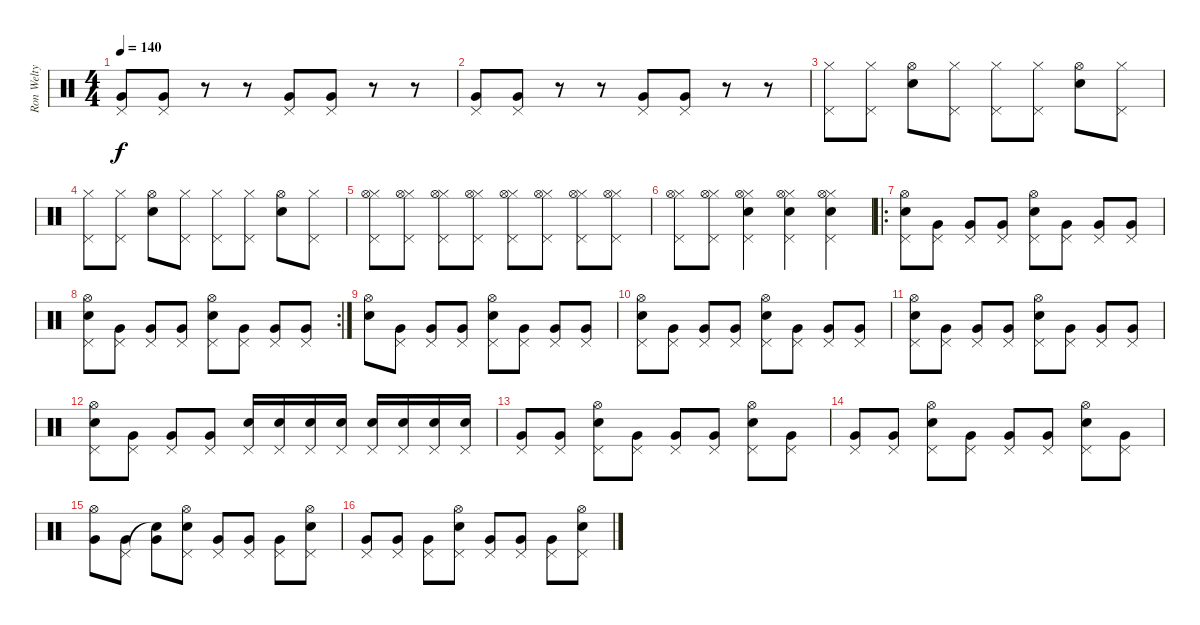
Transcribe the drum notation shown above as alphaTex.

\track ("Ron Welty - Bateria" "Ron Welty ") {instrument percussion}
\staff {score}
\articulation defaults
\ts (4 4)
\tempo 140
\clef neutral
\ks c
("Pedal Hi-Hat (hit)" "Very Low Tom (hit)").8{dy f} ("Pedal Hi-Hat (hit)" "Very Low Tom (hit)").8 r.8 r.8 ("Pedal Hi-Hat (hit)" "Very Low Tom (hit)").8 ("Pedal Hi-Hat (hit)" "Very Low Tom (hit)").8 r.8 r.8 |
("Pedal Hi-Hat (hit)" "Very Low Tom (hit)").8 ("Very Low Tom (hit)" "Pedal Hi-Hat (hit)").8 r.8 r.8 ("Pedal Hi-Hat (hit)" "Very Low Tom (hit)").8 ("Pedal Hi-Hat (hit)" "Very Low Tom (hit)").8 r.8 r.8 |
("Pedal Hi-Hat (hit)" "Hi-Hat (closed)").8 ("Pedal Hi-Hat (hit)" "Hi-Hat (closed)").8 ("Electric Snare (hit)" "Hi-Hat (open)").8 ("Pedal Hi-Hat (hit)" "Hi-Hat (closed)").8 ("Pedal Hi-Hat (hit)" "Hi-Hat (closed)").8 ("Pedal Hi-Hat (hit)" "Hi-Hat (closed)").8 ("Electric Snare (hit)" "Hi-Hat (open)").8 ("Pedal Hi-Hat (hit)" "Hi-Hat (closed)").8 |
("Pedal Hi-Hat (hit)" "Hi-Hat (closed)").8 ("Pedal Hi-Hat (hit)" "Hi-Hat (closed)").8 ("Electric Snare (hit)" "Hi-Hat (open)").8 ("Pedal Hi-Hat (hit)" "Hi-Hat (closed)").8 ("Pedal Hi-Hat (hit)" "Hi-Hat (closed)").8 ("Pedal Hi-Hat (hit)" "Hi-Hat (closed)").8 ("Electric Snare (hit)" "Hi-Hat (open)").8 ("Pedal Hi-Hat (hit)" "Hi-Hat (closed)").8 |
("Hi-Hat (closed)" "Pedal Hi-Hat (hit)" "Hi-Hat (open)").8 ("Hi-Hat (closed)" "Pedal Hi-Hat (hit)" "Hi-Hat (open)").8 ("Hi-Hat (closed)" "Pedal Hi-Hat (hit)" "Hi-Hat (open)").8 ("Hi-Hat (closed)" "Pedal Hi-Hat (hit)" "Hi-Hat (open)").8 ("Hi-Hat (closed)" "Pedal Hi-Hat (hit)" "Hi-Hat (open)").8 ("Hi-Hat (closed)" "Pedal Hi-Hat (hit)" "Hi-Hat (open)").8 ("Hi-Hat (closed)" "Pedal Hi-Hat (hit)" "Hi-Hat (open)").8 ("Hi-Hat (closed)" "Pedal Hi-Hat (hit)" "Hi-Hat (open)").8 |
("Hi-Hat (closed)" "Pedal Hi-Hat (hit)" "Hi-Hat (open)").8 ("Hi-Hat (closed)" "Pedal Hi-Hat (hit)" "Hi-Hat (open)").8 ("Electric Snare (hit)" "Hi-Hat (closed)" "Pedal Hi-Hat (hit)" "Hi-Hat (open)").4 ("Electric Snare (hit)" "Hi-Hat (closed)" "Pedal Hi-Hat (hit)" "Hi-Hat (open)").4 ("Electric Snare (hit)" "Hi-Hat (closed)" "Pedal Hi-Hat (hit)" "Hi-Hat (open)").4 |
\ro
("Pedal Hi-Hat (hit)" "Electric Snare (hit)" "Hi-Hat (open)").8 ("Pedal Hi-Hat (hit)" "Very Low Tom (hit)").8 ("Pedal Hi-Hat (hit)" "Very Low Tom (hit)").8 ("Pedal Hi-Hat (hit)" "Very Low Tom (hit)").8 ("Pedal Hi-Hat (hit)" "Electric Snare (hit)" "Hi-Hat (open)").8 ("Pedal Hi-Hat (hit)" "Very Low Tom (hit)").8 ("Pedal Hi-Hat (hit)" "Very Low Tom (hit)").8 ("Pedal Hi-Hat (hit)" "Very Low Tom (hit)").8 |
\rc 2
("Electric Snare (hit)" "Pedal Hi-Hat (hit)" "Hi-Hat (open)").8 ("Pedal Hi-Hat (hit)" "Very Low Tom (hit)").8 ("Pedal Hi-Hat (hit)" "Very Low Tom (hit)").8 ("Pedal Hi-Hat (hit)" "Very Low Tom (hit)").8 ("Electric Snare (hit)" "Pedal Hi-Hat (hit)" "Hi-Hat (open)").8 ("Very Low Tom (hit)" "Pedal Hi-Hat (hit)").8 ("Very Low Tom (hit)" "Pedal Hi-Hat (hit)").8 ("Very Low Tom (hit)" "Pedal Hi-Hat (hit)").8 |
("Hi-Hat (open)" "Electric Snare (hit)").8 ("Pedal Hi-Hat (hit)" "Very Low Tom (hit)").8 ("Pedal Hi-Hat (hit)" "Very Low Tom (hit)").8 ("Pedal Hi-Hat (hit)" "Very Low Tom (hit)").8 ("Pedal Hi-Hat (hit)" "Electric Snare (hit)" "Hi-Hat (open)").8 ("Pedal Hi-Hat (hit)" "Very Low Tom (hit)").8 ("Pedal Hi-Hat (hit)" "Very Low Tom (hit)").8 ("Pedal Hi-Hat (hit)" "Very Low Tom (hit)").8 |
("Electric Snare (hit)" "Pedal Hi-Hat (hit)" "Hi-Hat (open)").8 ("Pedal Hi-Hat (hit)" "Very Low Tom (hit)").8 ("Pedal Hi-Hat (hit)" "Very Low Tom (hit)").8 ("Pedal Hi-Hat (hit)" "Very Low Tom (hit)").8 ("Electric Snare (hit)" "Pedal Hi-Hat (hit)" "Hi-Hat (open)").8 ("Pedal Hi-Hat (hit)" "Very Low Tom (hit)").8 ("Pedal Hi-Hat (hit)" "Very Low Tom (hit)").8 ("Pedal Hi-Hat (hit)" "Very Low Tom (hit)").8 |
("Electric Snare (hit)" "Pedal Hi-Hat (hit)" "Hi-Hat (open)").8 ("Pedal Hi-Hat (hit)" "Very Low Tom (hit)").8 ("Pedal Hi-Hat (hit)" "Very Low Tom (hit)").8 ("Pedal Hi-Hat (hit)" "Very Low Tom (hit)").8 ("Electric Snare (hit)" "Pedal Hi-Hat (hit)" "Hi-Hat (open)").8 ("Pedal Hi-Hat (hit)" "Very Low Tom (hit)").8 ("Pedal Hi-Hat (hit)" "Very Low Tom (hit)").8 ("Pedal Hi-Hat (hit)" "Very Low Tom (hit)").8 |
("Pedal Hi-Hat (hit)" "Electric Snare (hit)" "Hi-Hat (open)").8 ("Pedal Hi-Hat (hit)" "Very Low Tom (hit)").8 ("Pedal Hi-Hat (hit)" "Very Low Tom (hit)").8 ("Pedal Hi-Hat (hit)" "Very Low Tom (hit)").8 ("Pedal Hi-Hat (hit)" "Electric Snare (hit)").16 ("Pedal Hi-Hat (hit)" "Electric Snare (hit)").16 ("Pedal Hi-Hat (hit)" "Electric Snare (hit)").16 ("Pedal Hi-Hat (hit)" "Electric Snare (hit)").16 ("Pedal Hi-Hat (hit)" "Electric Snare (hit)").16 ("Pedal Hi-Hat (hit)" "Electric Snare (hit)").16 ("Pedal Hi-Hat (hit)" "Electric Snare (hit)").16 ("Pedal Hi-Hat (hit)" "Electric Snare (hit)").16 |
("Pedal Hi-Hat (hit)" "Very Low Tom (hit)").8 ("Pedal Hi-Hat (hit)" "Very Low Tom (hit)").8 ("Electric Snare (hit)" "Pedal Hi-Hat (hit)" "Hi-Hat (open)").8 ("Pedal Hi-Hat (hit)" "Very Low Tom (hit)").8 ("Pedal Hi-Hat (hit)" "Very Low Tom (hit)").8 ("Pedal Hi-Hat (hit)" "Very Low Tom (hit)").8 ("Electric Snare (hit)" "Pedal Hi-Hat (hit)" "Hi-Hat (open)").8 ("Pedal Hi-Hat (hit)" "Very Low Tom (hit)").8 |
("Pedal Hi-Hat (hit)" "Very Low Tom (hit)").8 ("Pedal Hi-Hat (hit)" "Very Low Tom (hit)").8 ("Electric Snare (hit)" "Pedal Hi-Hat (hit)" "Hi-Hat (open)").8 ("Pedal Hi-Hat (hit)" "Very Low Tom (hit)").8 ("Pedal Hi-Hat (hit)" "Very Low Tom (hit)").8 ("Pedal Hi-Hat (hit)" "Very Low Tom (hit)").8 ("Pedal Hi-Hat (hit)" "Electric Snare (hit)" "Hi-Hat (open)").8 ("Pedal Hi-Hat (hit)" "Very Low Tom (hit)").8 |
("Hi-Hat (open)" "Very Low Tom (hit)").8 ("Pedal Hi-Hat (hit)" "Very Low Tom (hit)").8 ("Snare (hit)"{t} "Very Low Tom (hit)").8 ("Electric Snare (hit)" "Pedal Hi-Hat (hit)" "Hi-Hat (open)").8 ("Very Low Tom (hit)" "Pedal Hi-Hat (hit)").8 ("Pedal Hi-Hat (hit)" "Very Low Tom (hit)").8 ("Pedal Hi-Hat (hit)" "Very Low Tom (hit)").8 ("Electric Snare (hit)" "Pedal Hi-Hat (hit)" "Hi-Hat (open)").8 |
("Very Low Tom (hit)" "Pedal Hi-Hat (hit)").8 ("Pedal Hi-Hat (hit)" "Very Low Tom (hit)").8 ("Pedal Hi-Hat (hit)" "Very Low Tom (hit)").8 ("Pedal Hi-Hat (hit)" "Electric Snare (hit)" "Hi-Hat (open)").8 ("Very Low Tom (hit)" "Pedal Hi-Hat (hit)").8 ("Very Low Tom (hit)" "Pedal Hi-Hat (hit)").8 ("Very Low Tom (hit)" "Pedal Hi-Hat (hit)").8 ("Electric Snare (hit)" "Pedal Hi-Hat (hit)" "Hi-Hat (open)").8
